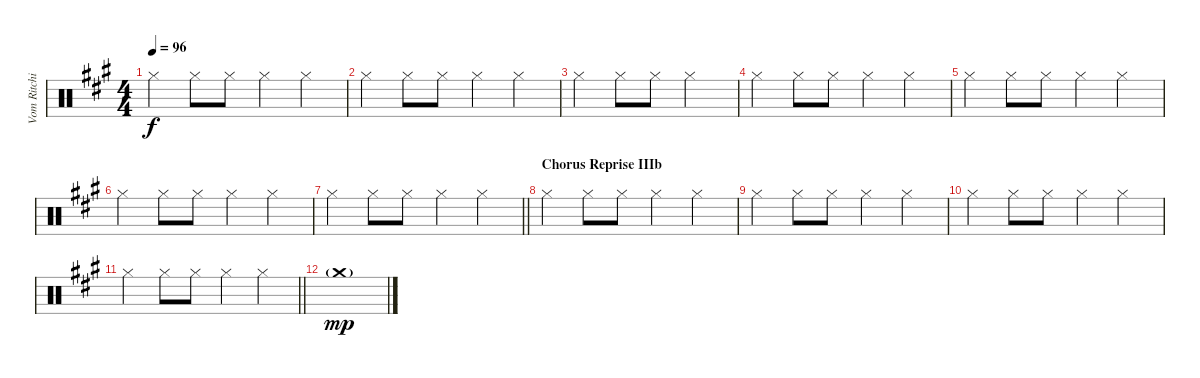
\track ("Vom Ritchie" "Vom Ritchi") {instrument percussion}
\staff {score}
\articulation defaults
\ts (4 4)
\tempo 96
\clef neutral
\ks a "Hi-Hat (closed)".4{dy f} "Hi-Hat (closed)".8 "Hi-Hat (closed)".8 "Hi-Hat (closed)".4 "Hi-Hat (closed)".4
|
"Hi-Hat (closed)".4 "Hi-Hat (closed)".8 "Hi-Hat (closed)".8 "Hi-Hat (closed)".4 "Hi-Hat (closed)".4 |
"Hi-Hat (closed)".4 "Hi-Hat (closed)".8 "Hi-Hat (closed)".8 "Hi-Hat (closed)".2 |
"Hi-Hat (closed)".4 "Hi-Hat (closed)".8 "Hi-Hat (closed)".8 "Hi-Hat (closed)".4 "Hi-Hat (closed)".4 |
"Hi-Hat (closed)".4 "Hi-Hat (closed)".8 "Hi-Hat (closed)".8 "Hi-Hat (closed)".4 "Hi-Hat (closed)".4 |
"Hi-Hat (closed)".4 "Hi-Hat (closed)".8 "Hi-Hat (closed)".8 "Hi-Hat (closed)".4 "Hi-Hat (closed)".4 |
\barLineRight lightlight "Hi-Hat (closed)".4 "Hi-Hat (closed)".8 "Hi-Hat (closed)".8 "Hi-Hat (closed)".4 "Hi-Hat (closed)".4
|
\section ("" "Chorus Reprise IIIb")
"Hi-Hat (closed)".4 "Hi-Hat (closed)".8 "Hi-Hat (closed)".8 "Hi-Hat (closed)".4 "Hi-Hat (closed)".4 |
"Hi-Hat (closed)".4 "Hi-Hat (closed)".8 "Hi-Hat (closed)".8 "Hi-Hat (closed)".4 "Hi-Hat (closed)".4 |
"Hi-Hat (closed)".4 "Hi-Hat (closed)".8 "Hi-Hat (closed)".8 "Hi-Hat (closed)".4 "Hi-Hat (closed)".4 |
\barLineRight lightlight "Hi-Hat (closed)".4 "Hi-Hat (closed)".8 "Hi-Hat (closed)".8 "Hi-Hat (closed)".4 "Hi-Hat (closed)".4
|
"Crash medium (hit)"{g}.1{dy mp}
